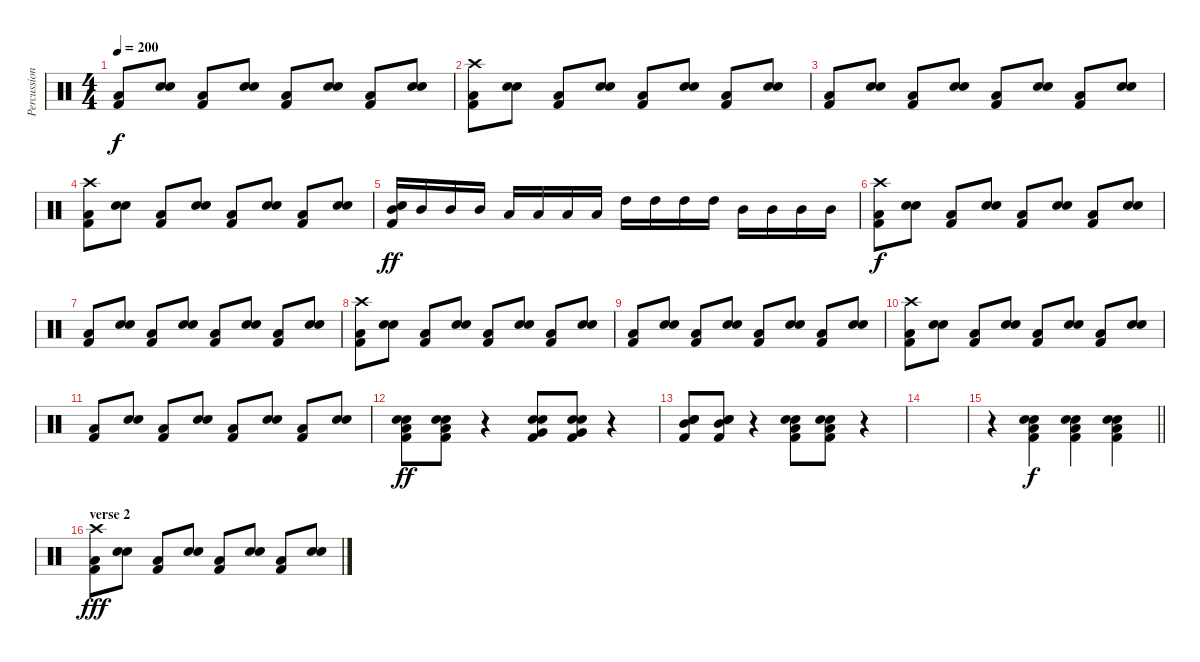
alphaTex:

\track ("Percussion, dave" "Percussion") {instrument percussion}
\staff {score}
\articulation defaults
\ts (4 4)
\tempo 200
\clef neutral
\ks c
("Low Tom (hit)" "Kick (hit) 2").8{dy f} ("Snare (hit) 2" "Electric Snare (hit)").8 ("Low Tom (hit)" "Kick (hit) 2").8 ("Snare (hit) 2" "Electric Snare (hit)").8 ("Low Tom (hit)" "Kick (hit) 2").8 ("Snare (hit) 2" "Electric Snare (hit)").8 ("Low Tom (hit)" "Kick (hit) 2").8 ("Snare (hit) 2" "Electric Snare (hit)").8 |
("Crash high (hit)" "Low Tom (hit)" "Kick (hit) 2").8 ("Snare (hit) 2" "Electric Snare (hit)").8 ("Low Tom (hit)" "Kick (hit) 2").8 ("Snare (hit) 2" "Electric Snare (hit)").8 ("Low Tom (hit)" "Kick (hit) 2").8 ("Snare (hit) 2" "Electric Snare (hit)").8 ("Low Tom (hit)" "Kick (hit) 2").8 ("Snare (hit) 2" "Electric Snare (hit)").8 |
("Low Tom (hit)" "Kick (hit) 2").8 ("Snare (hit) 2" "Electric Snare (hit)").8 ("Low Tom (hit)" "Kick (hit) 2").8 ("Snare (hit) 2" "Electric Snare (hit)").8 ("Low Tom (hit)" "Kick (hit) 2").8 ("Snare (hit) 2" "Electric Snare (hit)").8 ("Low Tom (hit)" "Kick (hit) 2").8 ("Snare (hit) 2" "Electric Snare (hit)").8 |
("Crash high (hit)" "Low Tom (hit)" "Kick (hit) 2").8 ("Snare (hit) 2" "Electric Snare (hit)").8 ("Low Tom (hit)" "Kick (hit) 2").8 ("Snare (hit) 2" "Electric Snare (hit)").8 ("Low Tom (hit)" "Kick (hit) 2").8 ("Snare (hit) 2" "Electric Snare (hit)").8 ("Low Tom (hit)" "Kick (hit) 2").8 ("Snare (hit) 2" "Electric Snare (hit)").8 |
("Mid Tom (hit)" "Snare (hit) 2" "Kick (hit) 2").16{dy ff} "Mid Tom (hit)".16 "Mid Tom (hit)".16 "Mid Tom (hit)".16 "Low Tom (hit)".16 "Low Tom (hit)".16 "Low Tom (hit)".16 "Low Tom (hit)".16 "High Tom (hit)".16 "High Tom (hit)".16 "High Tom (hit)".16 "High Tom (hit)".16 "Mid Tom (hit)".16 "Mid Tom (hit)".16 "Mid Tom (hit)".16 "Mid Tom (hit)".16 |
("Crash high (hit)" "Low Tom (hit)" "Kick (hit) 2").8{dy f} ("Snare (hit) 2" "Electric Snare (hit)").8 ("Low Tom (hit)" "Kick (hit) 2").8 ("Snare (hit) 2" "Electric Snare (hit)").8 ("Low Tom (hit)" "Kick (hit) 2").8 ("Snare (hit) 2" "Electric Snare (hit)").8 ("Low Tom (hit)" "Kick (hit) 2").8 ("Snare (hit) 2" "Electric Snare (hit)").8 |
("Low Tom (hit)" "Kick (hit) 2").8 ("Snare (hit) 2" "Electric Snare (hit)").8 ("Low Tom (hit)" "Kick (hit) 2").8 ("Snare (hit) 2" "Electric Snare (hit)").8 ("Low Tom (hit)" "Kick (hit) 2").8 ("Snare (hit) 2" "Electric Snare (hit)").8 ("Low Tom (hit)" "Kick (hit) 2").8 ("Snare (hit) 2" "Electric Snare (hit)").8 |
("Crash high (hit)" "Low Tom (hit)" "Kick (hit) 2").8 ("Snare (hit) 2" "Electric Snare (hit)").8 ("Low Tom (hit)" "Kick (hit) 2").8 ("Snare (hit) 2" "Electric Snare (hit)").8 ("Low Tom (hit)" "Kick (hit) 2").8 ("Snare (hit) 2" "Electric Snare (hit)").8 ("Low Tom (hit)" "Kick (hit) 2").8 ("Snare (hit) 2" "Electric Snare (hit)").8 |
("Low Tom (hit)" "Kick (hit) 2").8 ("Snare (hit) 2" "Electric Snare (hit)").8 ("Low Tom (hit)" "Kick (hit) 2").8 ("Snare (hit) 2" "Electric Snare (hit)").8 ("Low Tom (hit)" "Kick (hit) 2").8 ("Snare (hit) 2" "Electric Snare (hit)").8 ("Low Tom (hit)" "Kick (hit) 2").8 ("Snare (hit) 2" "Electric Snare (hit)").8 |
("Crash high (hit)" "Low Tom (hit)" "Kick (hit) 2").8 ("Snare (hit) 2" "Electric Snare (hit)").8 ("Low Tom (hit)" "Kick (hit) 2").8 ("Snare (hit) 2" "Electric Snare (hit)").8 ("Low Tom (hit)" "Kick (hit) 2").8 ("Snare (hit) 2" "Electric Snare (hit)").8 ("Low Tom (hit)" "Kick (hit) 2").8 ("Snare (hit) 2" "Electric Snare (hit)").8 |
("Low Tom (hit)" "Kick (hit) 2").8 ("Snare (hit) 2" "Electric Snare (hit)").8 ("Low Tom (hit)" "Kick (hit) 2").8 ("Snare (hit) 2" "Electric Snare (hit)").8 ("Low Tom (hit)" "Kick (hit) 2").8 ("Snare (hit) 2" "Electric Snare (hit)").8 ("Low Tom (hit)" "Kick (hit) 2").8 ("Snare (hit) 2" "Electric Snare (hit)").8 |
("Snare (hit) 2" "Electric Snare (hit)" "Kick (hit) 2" "Low Tom (hit)").8{dy ff} ("Snare (hit) 2" "Electric Snare (hit)" "Kick (hit) 2" "Low Tom (hit)").8 r.4 ("Snare (hit) 2" "Electric Snare (hit)" "Kick (hit) 2" "Very Low Tom (hit)").8 ("Snare (hit) 2" "Electric Snare (hit)" "Kick (hit) 2" "Very Low Tom (hit)").8 r.4 |
("Snare (hit) 2" "Electric Snare (hit)" "Kick (hit) 2" "Mid Tom (hit)").8 ("Snare (hit) 2" "Electric Snare (hit)" "Kick (hit) 2" "Mid Tom (hit)").8 r.4 ("Snare (hit) 2" "Electric Snare (hit)" "Kick (hit) 2" "Low Tom (hit)").8 ("Snare (hit) 2" "Electric Snare (hit)" "Kick (hit) 2" "Low Tom (hit)").8 r.4 |
|
\barLineRight lightlight
r.4 ("Snare (hit) 2" "Electric Snare (hit)" "Kick (hit) 2" "Low Tom (hit)").4{dy f} ("Snare (hit) 2" "Electric Snare (hit)" "Kick (hit) 2" "Low Tom (hit)").4 ("Snare (hit) 2" "Electric Snare (hit)" "Kick (hit) 2" "Low Tom (hit)").4 |
\section ("" "verse 2")
("Crash high (hit)" "Low Tom (hit)" "Kick (hit) 2").8{dy fff} ("Electric Snare (hit)" "Snare (hit) 2").8 ("Low Tom (hit)" "Kick (hit) 2").8 ("Electric Snare (hit)" "Snare (hit) 2").8 ("Low Tom (hit)" "Kick (hit) 2").8 ("Electric Snare (hit)" "Snare (hit) 2").8 ("Low Tom (hit)" "Kick (hit) 2").8 ("Electric Snare (hit)" "Snare (hit) 2").8
